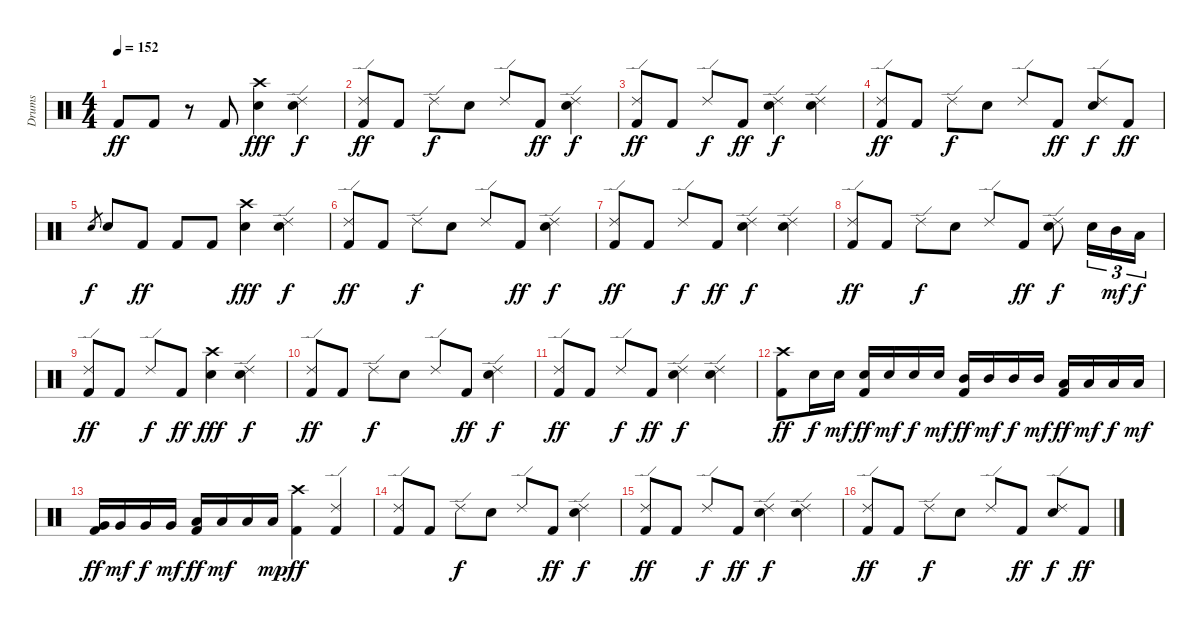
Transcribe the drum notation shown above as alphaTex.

\track ("Drums" "Drums") {instrument percussion}
\staff {score}
\articulation defaults
\ts (4 4)
\tempo 152
\clef neutral
\ks c "Kick (hit) 2".8{dy ff} "Kick (hit) 2".8
r.8 "Kick (hit) 2".8 ("Crash high (hit)" "Snare (hit) 2").4{dy fff} ("Ride (edge) 2" "Snare (hit) 2").4{dy f} |
("Ride (edge) 2" "Kick (hit) 2").8{dy ff} "Kick (hit) 2".8 "Ride (edge) 2".8{dy f} "Snare (hit) 2".8 "Ride (edge) 2".8 "Kick (hit) 2".8{dy ff} ("Ride (edge) 2" "Snare (hit) 2").4{dy f} |
("Ride (edge) 2" "Kick (hit) 2").8{dy ff} "Kick (hit) 2".8 "Ride (edge) 2".8{dy f} "Kick (hit) 2".8{dy ff} ("Ride (edge) 2" "Snare (hit) 2").4{dy f} ("Ride (edge) 2" "Snare (hit) 2").4 |
("Ride (edge) 2" "Kick (hit) 2").8{dy ff} "Kick (hit) 2".8 "Ride (edge) 2".8{dy f} "Snare (hit) 2".8 "Ride (edge) 2".8 "Kick (hit) 2".8{dy ff} ("Ride (edge) 2" "Snare (hit) 2").8{dy f} "Kick (hit) 2".8{dy ff} |
"Snare (hit) 2".8{gr dy f} "Snare (hit) 2".8 "Kick (hit) 2".8{dy ff} "Kick (hit) 2".8 "Kick (hit) 2".8 ("Crash high (hit)" "Snare (hit) 2").4{dy fff} ("Ride (edge) 2" "Snare (hit) 2").4{dy f} |
("Ride (edge) 2" "Kick (hit) 2").8{dy ff} "Kick (hit) 2".8 "Ride (edge) 2".8{dy f} "Snare (hit) 2".8 "Ride (edge) 2".8 "Kick (hit) 2".8{dy ff} ("Ride (edge) 2" "Snare (hit) 2").4{dy f} |
("Ride (edge) 2" "Kick (hit) 2").8{dy ff} "Kick (hit) 2".8 "Ride (edge) 2".8{dy f} "Kick (hit) 2".8{dy ff} ("Ride (edge) 2" "Snare (hit) 2").4{dy f} ("Ride (edge) 2" "Snare (hit) 2").4 |
("Ride (edge) 2" "Kick (hit) 2").8{dy ff} "Kick (hit) 2".8 "Ride (edge) 2".8{dy f} "Snare (hit) 2".8 "Ride (edge) 2".8 "Kick (hit) 2".8{dy ff} ("Ride (edge) 2" "Snare (hit) 2").8{dy f} "Snare (hit) 2".16{tu (3 2)} "Mid Tom (hit)".16{tu (3 2) dy mf} "Low Floor Tom (hit)".16{tu (3 2) dy f} |
("Ride (edge) 2" "Kick (hit) 2").8{dy ff} "Kick (hit) 2".8 "Ride (edge) 2".8{dy f} "Kick (hit) 2".8{dy ff} ("Crash high (hit)" "Snare (hit) 2").4{dy fff} ("Ride (edge) 2" "Snare (hit) 2").4{dy f} |
("Ride (edge) 2" "Kick (hit) 2").8{dy ff} "Kick (hit) 2".8 "Ride (edge) 2".8{dy f} "Snare (hit) 2".8 "Ride (edge) 2".8 "Kick (hit) 2".8{dy ff} ("Ride (edge) 2" "Snare (hit) 2").4{dy f} |
("Ride (edge) 2" "Kick (hit) 2").8{dy ff} "Kick (hit) 2".8 "Ride (edge) 2".8{dy f} "Kick (hit) 2".8{dy ff} ("Ride (edge) 2" "Snare (hit) 2").4{dy f} ("Ride (edge) 2" "Snare (hit) 2").4 |
("Crash high (hit)" "Kick (hit) 2").8{dy ff} "Snare (hit) 2".16{dy f} "Snare (hit) 2".16{dy mf} ("Snare (hit) 2" "Kick (hit) 2").16{dy ff} "Snare (hit) 2".16{dy mf} "Snare (hit) 2".16{dy f} "Snare (hit) 2".16{dy mf} ("Mid Tom (hit)" "Kick (hit) 2").16{dy ff} "Mid Tom (hit)".16{dy mf} "Mid Tom (hit)".16{dy f} "Mid Tom (hit)".16{dy mf} ("Low Tom (hit)" "Kick (hit) 2").16{dy ff} "Low Tom (hit)".16{dy mf} "Low Tom (hit)".16{dy f} "Low Tom (hit)".16{dy mf} |
("Very Low Tom (hit)" "Kick (hit) 2").16{dy ff} "Very Low Tom (hit)".16{dy mf} "Very Low Tom (hit)".16{dy f} "Very Low Tom (hit)".16{dy mf} ("Low Floor Tom (hit)" "Kick (hit) 2").16{dy ff} "Low Floor Tom (hit)".16{dy mf} "Low Floor Tom (hit)".16 "Low Floor Tom (hit)".16{dy mp} ("Crash high (hit)" "Kick (hit) 2").4{dy ff} ("Ride (edge) 2" "Kick (hit) 2").4 |
("Ride (edge) 2" "Kick (hit) 2").8 "Kick (hit) 2".8 "Ride (edge) 2".8{dy f} "Snare (hit) 2".8 "Ride (edge) 2".8 "Kick (hit) 2".8{dy ff} ("Ride (edge) 2" "Snare (hit) 2").4{dy f} |
("Ride (edge) 2" "Kick (hit) 2").8{dy ff} "Kick (hit) 2".8 "Ride (edge) 2".8{dy f} "Kick (hit) 2".8{dy ff} ("Ride (edge) 2" "Snare (hit) 2").4{dy f} ("Ride (edge) 2" "Snare (hit) 2").4 |
("Ride (edge) 2" "Kick (hit) 2").8{dy ff} "Kick (hit) 2".8 "Ride (edge) 2".8{dy f} "Snare (hit) 2".8 "Ride (edge) 2".8 "Kick (hit) 2".8{dy ff} ("Ride (edge) 2" "Snare (hit) 2").8{dy f} "Kick (hit) 2".8{dy ff}
